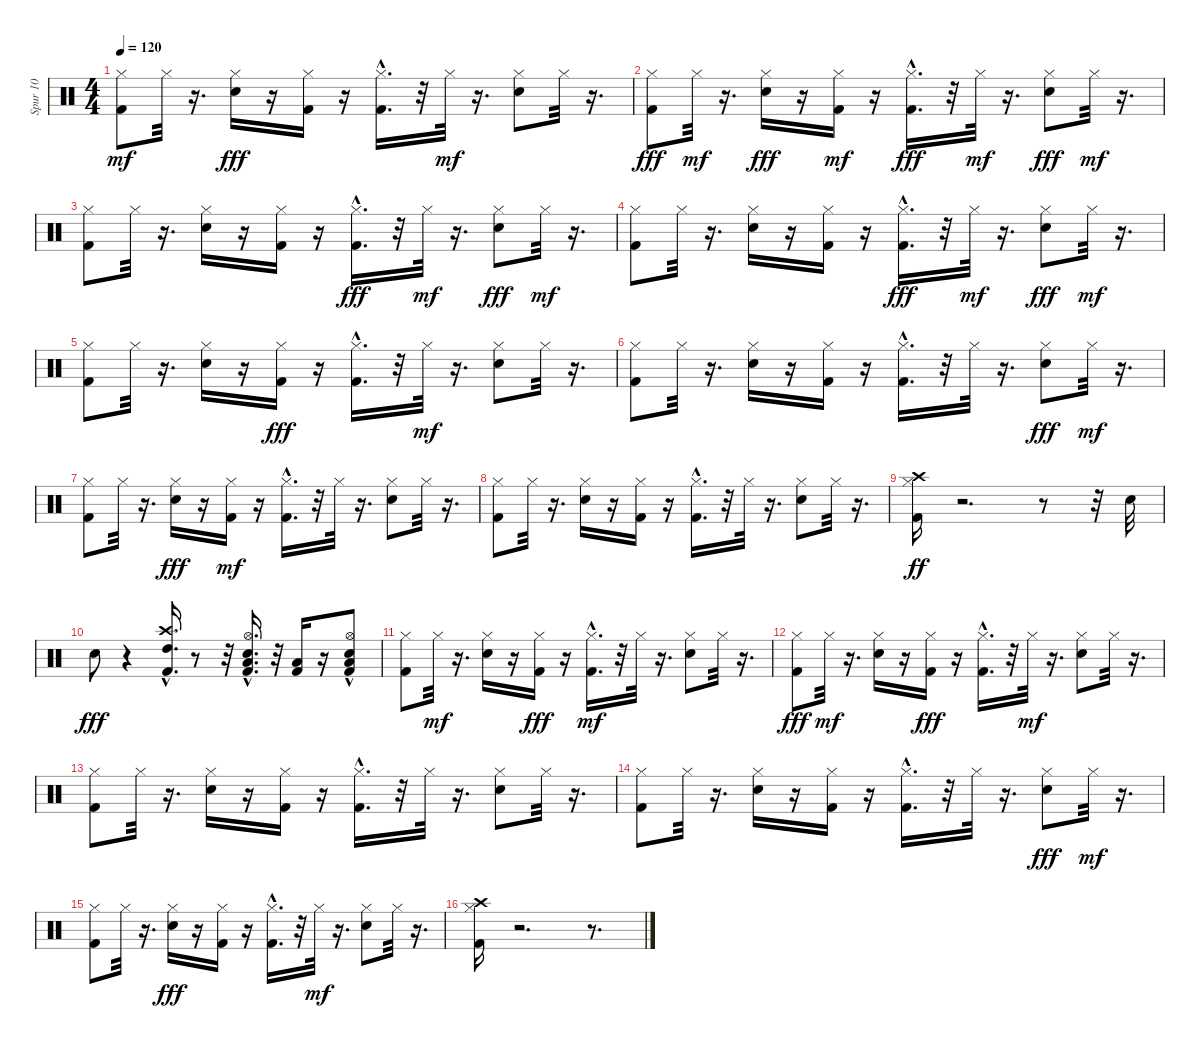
\track ("Spur 10" "Spur 10") {instrument percussion}
\staff {score}
\articulation defaults
\ts (4 4)
\tempo 120
\clef neutral
\ks c
("Kick (hit) 2" "Hi-Hat (closed)").8{dy mf} "Hi-Hat (closed)".32 r.16{d} ("Hi-Hat (closed)" "Electric Snare (hit)").16{dy fff} r.16 ("Hi-Hat (closed)" "Kick (hit) 2").16 r.16 ("Hi-Hat (closed)" "Kick (hit) 2"{hac}).16{d} r.32 "Hi-Hat (closed)".32{dy mf} r.16{d} ("Electric Snare (hit)" "Hi-Hat (closed)").8 "Hi-Hat (closed)".32 r.16{d} |
("Hi-Hat (closed)" "Kick (hit) 2").8{dy fff} "Hi-Hat (closed)".32{dy mf} r.16{d} ("Hi-Hat (closed)" "Electric Snare (hit)").16{dy fff} r.16 ("Kick (hit) 2" "Hi-Hat (closed)").16{dy mf} r.16 ("Hi-Hat (closed)" "Kick (hit) 2"{hac}).16{d dy fff} r.32 "Hi-Hat (closed)".32{dy mf} r.16{d} ("Hi-Hat (closed)" "Electric Snare (hit)").8{dy fff} "Hi-Hat (closed)".32{dy mf} r.16{d} |
("Kick (hit) 2" "Hi-Hat (closed)").8 "Hi-Hat (closed)".32 r.16{d} ("Electric Snare (hit)" "Hi-Hat (closed)").16 r.16 ("Kick (hit) 2" "Hi-Hat (closed)").16 r.16 ("Hi-Hat (closed)" "Kick (hit) 2"{hac}).16{d dy fff} r.32 "Hi-Hat (closed)".32{dy mf} r.16{d} ("Hi-Hat (closed)" "Electric Snare (hit)").8{dy fff} "Hi-Hat (closed)".32{dy mf} r.16{d} |
("Kick (hit) 2" "Hi-Hat (closed)").8 "Hi-Hat (closed)".32 r.16{d} ("Electric Snare (hit)" "Hi-Hat (closed)").16 r.16 ("Kick (hit) 2" "Hi-Hat (closed)").16 r.16 ("Hi-Hat (closed)" "Kick (hit) 2"{hac}).16{d dy fff} r.32 "Hi-Hat (closed)".32{dy mf} r.16{d} ("Hi-Hat (closed)" "Electric Snare (hit)").8{dy fff} "Hi-Hat (closed)".32{dy mf} r.16{d} |
("Kick (hit) 2" "Hi-Hat (closed)").8 "Hi-Hat (closed)".32 r.16{d} ("Electric Snare (hit)" "Hi-Hat (closed)").16 r.16 ("Hi-Hat (closed)" "Kick (hit) 2").16{dy fff} r.16 ("Hi-Hat (closed)" "Kick (hit) 2"{hac}).16{d} r.32 "Hi-Hat (closed)".32{dy mf} r.16{d} ("Electric Snare (hit)" "Hi-Hat (closed)").8 "Hi-Hat (closed)".32 r.16{d} |
("Kick (hit) 2" "Hi-Hat (closed)").8 "Hi-Hat (closed)".32 r.16{d} ("Electric Snare (hit)" "Hi-Hat (closed)").16 r.16 ("Kick (hit) 2" "Hi-Hat (closed)").16 r.16 ("Kick (hit) 2"{hac} "Hi-Hat (closed)").16{d} r.32 "Hi-Hat (closed)".32 r.16{d} ("Hi-Hat (closed)" "Electric Snare (hit)").8{dy fff} "Hi-Hat (closed)".32{dy mf} r.16{d} |
("Kick (hit) 2" "Hi-Hat (closed)").8 "Hi-Hat (closed)".32 r.16{d} ("Hi-Hat (closed)" "Electric Snare (hit)").16{dy fff} r.16 ("Kick (hit) 2" "Hi-Hat (closed)").16{dy mf} r.16 ("Kick (hit) 2"{hac} "Hi-Hat (closed)").16{d} r.32 "Hi-Hat (closed)".32 r.16{d} ("Electric Snare (hit)" "Hi-Hat (closed)").8 "Hi-Hat (closed)".32 r.16{d} |
("Kick (hit) 2" "Hi-Hat (closed)").8 "Hi-Hat (closed)".32 r.16{d} ("Electric Snare (hit)" "Hi-Hat (closed)").16 r.16 ("Kick (hit) 2" "Hi-Hat (closed)").16 r.16 ("Kick (hit) 2"{hac} "Hi-Hat (closed)").16{d} r.32 "Hi-Hat (closed)".32 r.16{d} ("Electric Snare (hit)" "Hi-Hat (closed)").8 "Hi-Hat (closed)".32 r.16{d} |
("Kick (hit) 2" "Hi-Hat (closed)" "Crash high (hit)").16{dy ff} r.2{d} r.8 r.32 "Electric Snare (hit)".32 |
"Electric Snare (hit)".8{dy fff} r.4 ("Crash high (hit)" "High Tom (hit)" "Kick (hit) 2"{hac}).16{d} r.8 r.32 ("Low Tom (hit)" "Hi-Hat (open)" "Kick (hit) 2" "Snare (hit) 2"{hac}).16{d} r.32 ("Kick (hit) 2" "Low Tom (hit)").16 r.16 ("Snare (hit) 2" "Low Floor Tom (hit)"{hac} "Hi-Hat (open)" "Kick (hit) 2").8 |
("Hi-Hat (closed)" "Kick (hit) 2").8 "Hi-Hat (closed)".32{dy mf} r.16{d} ("Electric Snare (hit)" "Hi-Hat (closed)").16 r.16 ("Hi-Hat (closed)" "Kick (hit) 2").16{dy fff} r.16 ("Kick (hit) 2"{hac} "Hi-Hat (closed)").16{d dy mf} r.32 "Hi-Hat (closed)".32 r.16{d} ("Electric Snare (hit)" "Hi-Hat (closed)").8 "Hi-Hat (closed)".32 r.16{d} |
("Hi-Hat (closed)" "Kick (hit) 2").8{dy fff} "Hi-Hat (closed)".32{dy mf} r.16{d} ("Electric Snare (hit)" "Hi-Hat (closed)").16 r.16 ("Hi-Hat (closed)" "Kick (hit) 2").16{dy fff} r.16 ("Hi-Hat (closed)" "Kick (hit) 2"{hac}).16{d} r.32 "Hi-Hat (closed)".32{dy mf} r.16{d} ("Electric Snare (hit)" "Hi-Hat (closed)").8 "Hi-Hat (closed)".32 r.16{d} |
("Kick (hit) 2" "Hi-Hat (closed)").8 "Hi-Hat (closed)".32 r.16{d} ("Electric Snare (hit)" "Hi-Hat (closed)").16 r.16 ("Kick (hit) 2" "Hi-Hat (closed)").16 r.16 ("Kick (hit) 2"{hac} "Hi-Hat (closed)").16{d} r.32 "Hi-Hat (closed)".32 r.16{d} ("Electric Snare (hit)" "Hi-Hat (closed)").8 "Hi-Hat (closed)".32 r.16{d} |
("Kick (hit) 2" "Hi-Hat (closed)").8 "Hi-Hat (closed)".32 r.16{d} ("Electric Snare (hit)" "Hi-Hat (closed)").16 r.16 ("Kick (hit) 2" "Hi-Hat (closed)").16 r.16 ("Kick (hit) 2"{hac} "Hi-Hat (closed)").16{d} r.32 "Hi-Hat (closed)".32 r.16{d} ("Hi-Hat (closed)" "Electric Snare (hit)").8{dy fff} "Hi-Hat (closed)".32{dy mf} r.16{d} |
("Kick (hit) 2" "Hi-Hat (closed)").8 "Hi-Hat (closed)".32 r.16{d} ("Hi-Hat (closed)" "Electric Snare (hit)").16{dy fff} r.16 ("Hi-Hat (closed)" "Kick (hit) 2").16 r.16 ("Hi-Hat (closed)" "Kick (hit) 2"{hac}).16{d} r.32 "Hi-Hat (closed)".32{dy mf} r.16{d} ("Electric Snare (hit)" "Hi-Hat (closed)").8 "Hi-Hat (closed)".32 r.16{d} |
("Kick (hit) 2" "Crash high (hit)" "Hi-Hat (closed)").16 r.2{d} r.8{d}
